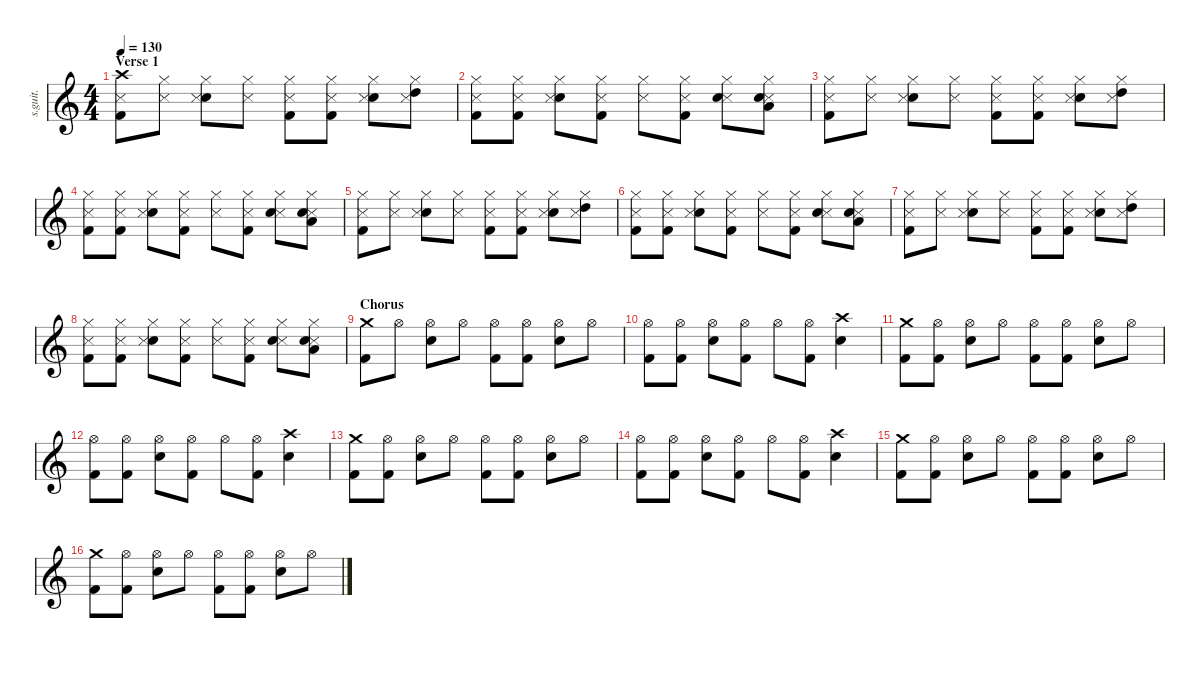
\defaultSystemsLayout 4
\hideDynamics
\bracketExtendMode nobrackets
\track ("Rowntree & Coxon - Drums" "s.guit.") {instrument percussion}
\staff {score}
\articulation defaults
\ts (4 4)
\section ("" "Verse 1")
\tempo 130
\clef g2
\ks c
("Kick (hit) 2" "Snare (side stick) 3" "Crash high (hit)").8{lyrics (0 "") lyrics (1 "") lyrics (2 "") lyrics (3 "") lyrics (4 "") dy f} ("Snare (side stick) 3" "Hi-Hat (closed)").8{lyrics (0 "") lyrics (1 "") lyrics (2 "") lyrics (3 "") lyrics (4 "")} ("Snare (hit) 2" "Snare (side stick) 3" "Hi-Hat (closed)").8{lyrics (0 "") lyrics (1 "") lyrics (2 "") lyrics (3 "") lyrics (4 "")} ("Snare (side stick) 3" "Hi-Hat (closed)").8{lyrics (0 "") lyrics (1 "") lyrics (2 "") lyrics (3 "") lyrics (4 "")} ("Kick (hit) 2" "Snare (side stick) 3" "Hi-Hat (closed)").8{lyrics (0 "") lyrics (1 "") lyrics (2 "") lyrics (3 "") lyrics (4 "")} ("Kick (hit) 2" "Snare (side stick) 3" "Hi-Hat (closed)").8{lyrics (0 "") lyrics (1 "") lyrics (2 "") lyrics (3 "") lyrics (4 "")} ("Snare (hit) 2" "Snare (side stick) 3" "Hi-Hat (closed)").8{lyrics (0 "") lyrics (1 "") lyrics (2 "") lyrics (3 "") lyrics (4 "")} ("High Tom (hit)" "Snare (side stick) 3" "Hi-Hat (closed)").8{lyrics (0 "") lyrics (1 "") lyrics (2 "") lyrics (3 "") lyrics (4 "")} |
("Kick (hit) 2" "Snare (side stick) 3" "Hi-Hat (closed)").8{lyrics (0 "") lyrics (1 "") lyrics (2 "") lyrics (3 "") lyrics (4 "")} ("Kick (hit) 2" "Snare (side stick) 3" "Hi-Hat (closed)").8{lyrics (0 "") lyrics (1 "") lyrics (2 "") lyrics (3 "") lyrics (4 "")} ("Snare (hit) 2" "Snare (side stick) 3" "Hi-Hat (closed)").8{lyrics (0 "") lyrics (1 "") lyrics (2 "") lyrics (3 "") lyrics (4 "")} ("Kick (hit) 2" "Snare (side stick) 3" "Hi-Hat (closed)").8{lyrics (0 "") lyrics (1 "") lyrics (2 "") lyrics (3 "") lyrics (4 "")} ("Snare (side stick) 3" "Hi-Hat (closed)").8{lyrics (0 "") lyrics (1 "") lyrics (2 "") lyrics (3 "") lyrics (4 "")} ("Kick (hit) 2" "Snare (side stick) 3" "Hi-Hat (closed)").8{lyrics (0 "") lyrics (1 "") lyrics (2 "") lyrics (3 "") lyrics (4 "")} ("Snare (side stick) 3" "Snare (hit) 2" "Hi-Hat (closed)").8{lyrics (0 "") lyrics (1 "") lyrics (2 "") lyrics (3 "") lyrics (4 "")} ("Snare (side stick) 3" "Snare (hit) 2" "Low Floor Tom (hit)" "Hi-Hat (closed)").8{lyrics (0 "") lyrics (1 "") lyrics (2 "") lyrics (3 "") lyrics (4 "")} |
("Kick (hit) 2" "Snare (side stick) 3" "Hi-Hat (closed)").8{lyrics (0 "") lyrics (1 "") lyrics (2 "") lyrics (3 "") lyrics (4 "")} ("Snare (side stick) 3" "Hi-Hat (closed)").8{lyrics (0 "") lyrics (1 "") lyrics (2 "") lyrics (3 "") lyrics (4 "")} ("Snare (hit) 2" "Snare (side stick) 3" "Hi-Hat (closed)").8{lyrics (0 "") lyrics (1 "") lyrics (2 "") lyrics (3 "") lyrics (4 "")} ("Snare (side stick) 3" "Hi-Hat (closed)").8{lyrics (0 "") lyrics (1 "") lyrics (2 "") lyrics (3 "") lyrics (4 "")} ("Kick (hit) 2" "Snare (side stick) 3" "Hi-Hat (closed)").8{lyrics (0 "") lyrics (1 "") lyrics (2 "") lyrics (3 "") lyrics (4 "")} ("Kick (hit) 2" "Snare (side stick) 3" "Hi-Hat (closed)").8{lyrics (0 "") lyrics (1 "") lyrics (2 "") lyrics (3 "") lyrics (4 "")} ("Snare (hit) 2" "Snare (side stick) 3" "Hi-Hat (closed)").8{lyrics (0 "") lyrics (1 "") lyrics (2 "") lyrics (3 "") lyrics (4 "")} ("High Tom (hit)" "Snare (side stick) 3" "Hi-Hat (closed)").8{lyrics (0 "") lyrics (1 "") lyrics (2 "") lyrics (3 "") lyrics (4 "")} |
("Kick (hit) 2" "Snare (side stick) 3" "Hi-Hat (closed)").8{lyrics (0 "") lyrics (1 "") lyrics (2 "") lyrics (3 "") lyrics (4 "")} ("Kick (hit) 2" "Snare (side stick) 3" "Hi-Hat (closed)").8{lyrics (0 "") lyrics (1 "") lyrics (2 "") lyrics (3 "") lyrics (4 "")} ("Snare (hit) 2" "Snare (side stick) 3" "Hi-Hat (closed)").8{lyrics (0 "") lyrics (1 "") lyrics (2 "") lyrics (3 "") lyrics (4 "")} ("Kick (hit) 2" "Snare (side stick) 3" "Hi-Hat (closed)").8{lyrics (0 "") lyrics (1 "") lyrics (2 "") lyrics (3 "") lyrics (4 "")} ("Snare (side stick) 3" "Hi-Hat (closed)").8{lyrics (0 "") lyrics (1 "") lyrics (2 "") lyrics (3 "") lyrics (4 "")} ("Kick (hit) 2" "Snare (side stick) 3" "Hi-Hat (closed)").8{lyrics (0 "") lyrics (1 "") lyrics (2 "") lyrics (3 "") lyrics (4 "")} ("Snare (side stick) 3" "Snare (hit) 2" "Hi-Hat (closed)").8{lyrics (0 "") lyrics (1 "") lyrics (2 "") lyrics (3 "") lyrics (4 "")} ("Snare (side stick) 3" "Snare (hit) 2" "Low Floor Tom (hit)" "Hi-Hat (closed)").8{lyrics (0 "") lyrics (1 "") lyrics (2 "") lyrics (3 "") lyrics (4 "")} |
("Kick (hit) 2" "Snare (side stick) 3" "Hi-Hat (closed)").8{lyrics (0 "") lyrics (1 "") lyrics (2 "") lyrics (3 "") lyrics (4 "")} ("Snare (side stick) 3" "Hi-Hat (closed)").8{lyrics (0 "") lyrics (1 "") lyrics (2 "") lyrics (3 "") lyrics (4 "")} ("Snare (hit) 2" "Snare (side stick) 3" "Hi-Hat (closed)").8{lyrics (0 "") lyrics (1 "") lyrics (2 "") lyrics (3 "") lyrics (4 "")} ("Snare (side stick) 3" "Hi-Hat (closed)").8{lyrics (0 "") lyrics (1 "") lyrics (2 "") lyrics (3 "") lyrics (4 "")} ("Kick (hit) 2" "Snare (side stick) 3" "Hi-Hat (closed)").8{lyrics (0 "") lyrics (1 "") lyrics (2 "") lyrics (3 "") lyrics (4 "")} ("Kick (hit) 2" "Snare (side stick) 3" "Hi-Hat (closed)").8{lyrics (0 "") lyrics (1 "") lyrics (2 "") lyrics (3 "") lyrics (4 "")} ("Snare (hit) 2" "Snare (side stick) 3" "Hi-Hat (closed)").8{lyrics (0 "") lyrics (1 "") lyrics (2 "") lyrics (3 "") lyrics (4 "")} ("Snare (side stick) 3" "Hi-Hat (closed)" "High Tom (hit)").8{lyrics (0 "") lyrics (1 "") lyrics (2 "") lyrics (3 "") lyrics (4 "")} |
("Kick (hit) 2" "Snare (side stick) 3" "Hi-Hat (closed)").8{lyrics (0 "") lyrics (1 "") lyrics (2 "") lyrics (3 "") lyrics (4 "")} ("Kick (hit) 2" "Snare (side stick) 3" "Hi-Hat (closed)").8{lyrics (0 "") lyrics (1 "") lyrics (2 "") lyrics (3 "") lyrics (4 "")} ("Snare (hit) 2" "Snare (side stick) 3" "Hi-Hat (closed)").8{lyrics (0 "") lyrics (1 "") lyrics (2 "") lyrics (3 "") lyrics (4 "")} ("Kick (hit) 2" "Snare (side stick) 3" "Hi-Hat (closed)").8{lyrics (0 "") lyrics (1 "") lyrics (2 "") lyrics (3 "") lyrics (4 "")} ("Snare (side stick) 3" "Hi-Hat (closed)").8{lyrics (0 "") lyrics (1 "") lyrics (2 "") lyrics (3 "") lyrics (4 "")} ("Kick (hit) 2" "Snare (side stick) 3" "Hi-Hat (closed)").8{lyrics (0 "") lyrics (1 "") lyrics (2 "") lyrics (3 "") lyrics (4 "")} ("Snare (side stick) 3" "Snare (hit) 2" "Hi-Hat (closed)").8{lyrics (0 "") lyrics (1 "") lyrics (2 "") lyrics (3 "") lyrics (4 "")} ("Snare (side stick) 3" "Snare (hit) 2" "Low Floor Tom (hit)" "Hi-Hat (closed)").8{lyrics (0 "") lyrics (1 "") lyrics (2 "") lyrics (3 "") lyrics (4 "")} |
("Kick (hit) 2" "Snare (side stick) 3" "Hi-Hat (closed)").8{lyrics (0 "") lyrics (1 "") lyrics (2 "") lyrics (3 "") lyrics (4 "")} ("Snare (side stick) 3" "Hi-Hat (closed)").8{lyrics (0 "") lyrics (1 "") lyrics (2 "") lyrics (3 "") lyrics (4 "")} ("Snare (hit) 2" "Snare (side stick) 3" "Hi-Hat (closed)").8{lyrics (0 "") lyrics (1 "") lyrics (2 "") lyrics (3 "") lyrics (4 "")} ("Snare (side stick) 3" "Hi-Hat (closed)").8{lyrics (0 "") lyrics (1 "") lyrics (2 "") lyrics (3 "") lyrics (4 "")} ("Kick (hit) 2" "Snare (side stick) 3" "Hi-Hat (closed)").8{lyrics (0 "") lyrics (1 "") lyrics (2 "") lyrics (3 "") lyrics (4 "")} ("Kick (hit) 2" "Snare (side stick) 3" "Hi-Hat (closed)").8{lyrics (0 "") lyrics (1 "") lyrics (2 "") lyrics (3 "") lyrics (4 "")} ("Snare (hit) 2" "Snare (side stick) 3" "Hi-Hat (closed)").8{lyrics (0 "") lyrics (1 "") lyrics (2 "") lyrics (3 "") lyrics (4 "")} ("High Tom (hit)" "Snare (side stick) 3" "Hi-Hat (closed)").8{lyrics (0 "") lyrics (1 "") lyrics (2 "") lyrics (3 "") lyrics (4 "")} |
("Kick (hit) 2" "Snare (side stick) 3" "Hi-Hat (closed)").8{lyrics (0 "") lyrics (1 "") lyrics (2 "") lyrics (3 "") lyrics (4 "")} ("Kick (hit) 2" "Snare (side stick) 3" "Hi-Hat (closed)").8{lyrics (0 "") lyrics (1 "") lyrics (2 "") lyrics (3 "") lyrics (4 "")} ("Snare (hit) 2" "Snare (side stick) 3" "Hi-Hat (closed)").8{lyrics (0 "") lyrics (1 "") lyrics (2 "") lyrics (3 "") lyrics (4 "")} ("Kick (hit) 2" "Snare (side stick) 3" "Hi-Hat (closed)").8{lyrics (0 "") lyrics (1 "") lyrics (2 "") lyrics (3 "") lyrics (4 "")} ("Snare (side stick) 3" "Hi-Hat (closed)").8{lyrics (0 "") lyrics (1 "") lyrics (2 "") lyrics (3 "") lyrics (4 "")} ("Kick (hit) 2" "Snare (side stick) 3" "Hi-Hat (closed)").8{lyrics (0 "") lyrics (1 "") lyrics (2 "") lyrics (3 "") lyrics (4 "")} ("Snare (side stick) 3" "Snare (hit) 2" "Hi-Hat (closed)").8{lyrics (0 "") lyrics (1 "") lyrics (2 "") lyrics (3 "") lyrics (4 "")} ("Snare (side stick) 3" "Snare (hit) 2" "Low Floor Tom (hit)" "Hi-Hat (closed)").8{lyrics (0 "") lyrics (1 "") lyrics (2 "") lyrics (3 "") lyrics (4 "")} |
\section ("" "Chorus")
("Crash medium (hit)" "Kick (hit) 2").8{lyrics (0 "") lyrics (1 "") lyrics (2 "") lyrics (3 "") lyrics (4 "")} "Hi-Hat (open)".8{lyrics (0 "") lyrics (1 "") lyrics (2 "") lyrics (3 "") lyrics (4 "")} ("Snare (hit) 2" "Hi-Hat (open)").8{lyrics (0 "") lyrics (1 "") lyrics (2 "") lyrics (3 "") lyrics (4 "")} "Hi-Hat (open)".8{lyrics (0 "") lyrics (1 "") lyrics (2 "") lyrics (3 "") lyrics (4 "")} ("Hi-Hat (open)" "Kick (hit) 2").8{lyrics (0 "") lyrics (1 "") lyrics (2 "") lyrics (3 "") lyrics (4 "")} ("Hi-Hat (open)" "Kick (hit) 2").8{lyrics (0 "") lyrics (1 "") lyrics (2 "") lyrics (3 "") lyrics (4 "")} ("Snare (hit) 2" "Hi-Hat (open)").8{lyrics (0 "") lyrics (1 "") lyrics (2 "") lyrics (3 "") lyrics (4 "")} "Hi-Hat (open)".8{lyrics (0 "") lyrics (1 "") lyrics (2 "") lyrics (3 "") lyrics (4 "")} |
("Hi-Hat (open)" "Kick (hit) 2").8{lyrics (0 "") lyrics (1 "") lyrics (2 "") lyrics (3 "") lyrics (4 "")} ("Hi-Hat (open)" "Kick (hit) 2").8{lyrics (0 "") lyrics (1 "") lyrics (2 "") lyrics (3 "") lyrics (4 "")} ("Snare (hit) 2" "Hi-Hat (open)").8{lyrics (0 "") lyrics (1 "") lyrics (2 "") lyrics (3 "") lyrics (4 "")} ("Hi-Hat (open)" "Kick (hit) 2").8{lyrics (0 "") lyrics (1 "") lyrics (2 "") lyrics (3 "") lyrics (4 "")} "Hi-Hat (open)".8{lyrics (0 "") lyrics (1 "") lyrics (2 "") lyrics (3 "") lyrics (4 "")} ("Hi-Hat (open)" "Kick (hit) 2").8{lyrics (0 "") lyrics (1 "") lyrics (2 "") lyrics (3 "") lyrics (4 "")} ("Snare (hit) 2" "Crash high (hit)").4{lyrics (0 "") lyrics (1 "") lyrics (2 "") lyrics (3 "") lyrics (4 "")} |
("Crash medium (hit)" "Kick (hit) 2").8{lyrics (0 "") lyrics (1 "") lyrics (2 "") lyrics (3 "") lyrics (4 "")} ("Hi-Hat (open)" "Kick (hit) 2").8{lyrics (0 "") lyrics (1 "") lyrics (2 "") lyrics (3 "") lyrics (4 "")} ("Snare (hit) 2" "Hi-Hat (open)").8{lyrics (0 "") lyrics (1 "") lyrics (2 "") lyrics (3 "") lyrics (4 "")} "Hi-Hat (open)".8{lyrics (0 "") lyrics (1 "") lyrics (2 "") lyrics (3 "") lyrics (4 "")} ("Hi-Hat (open)" "Kick (hit) 2").8{lyrics (0 "") lyrics (1 "") lyrics (2 "") lyrics (3 "") lyrics (4 "")} ("Hi-Hat (open)" "Kick (hit) 2").8{lyrics (0 "") lyrics (1 "") lyrics (2 "") lyrics (3 "") lyrics (4 "")} ("Snare (hit) 2" "Hi-Hat (open)").8{lyrics (0 "") lyrics (1 "") lyrics (2 "") lyrics (3 "") lyrics (4 "")} "Hi-Hat (open)".8{lyrics (0 "") lyrics (1 "") lyrics (2 "") lyrics (3 "") lyrics (4 "")} |
("Hi-Hat (open)" "Kick (hit) 2").8{lyrics (0 "") lyrics (1 "") lyrics (2 "") lyrics (3 "") lyrics (4 "")} ("Hi-Hat (open)" "Kick (hit) 2").8{lyrics (0 "") lyrics (1 "") lyrics (2 "") lyrics (3 "") lyrics (4 "")} ("Snare (hit) 2" "Hi-Hat (open)").8{lyrics (0 "") lyrics (1 "") lyrics (2 "") lyrics (3 "") lyrics (4 "")} ("Hi-Hat (open)" "Kick (hit) 2").8{lyrics (0 "") lyrics (1 "") lyrics (2 "") lyrics (3 "") lyrics (4 "")} "Hi-Hat (open)".8{lyrics (0 "") lyrics (1 "") lyrics (2 "") lyrics (3 "") lyrics (4 "")} ("Hi-Hat (open)" "Kick (hit) 2").8{lyrics (0 "") lyrics (1 "") lyrics (2 "") lyrics (3 "") lyrics (4 "")} ("Snare (hit) 2" "Crash high (hit)").4{lyrics (0 "") lyrics (1 "") lyrics (2 "") lyrics (3 "") lyrics (4 "")} |
("Crash medium (hit)" "Kick (hit) 2").8{lyrics (0 "") lyrics (1 "") lyrics (2 "") lyrics (3 "") lyrics (4 "")} ("Hi-Hat (open)" "Kick (hit) 2").8{lyrics (0 "") lyrics (1 "") lyrics (2 "") lyrics (3 "") lyrics (4 "")} ("Snare (hit) 2" "Hi-Hat (open)").8{lyrics (0 "") lyrics (1 "") lyrics (2 "") lyrics (3 "") lyrics (4 "")} "Hi-Hat (open)".8{lyrics (0 "") lyrics (1 "") lyrics (2 "") lyrics (3 "") lyrics (4 "")} ("Hi-Hat (open)" "Kick (hit) 2").8{lyrics (0 "") lyrics (1 "") lyrics (2 "") lyrics (3 "") lyrics (4 "")} ("Hi-Hat (open)" "Kick (hit) 2").8{lyrics (0 "") lyrics (1 "") lyrics (2 "") lyrics (3 "") lyrics (4 "")} ("Snare (hit) 2" "Hi-Hat (open)").8{lyrics (0 "") lyrics (1 "") lyrics (2 "") lyrics (3 "") lyrics (4 "")} "Hi-Hat (open)".8{lyrics (0 "") lyrics (1 "") lyrics (2 "") lyrics (3 "") lyrics (4 "")} |
("Hi-Hat (open)" "Kick (hit) 2").8{lyrics (0 "") lyrics (1 "") lyrics (2 "") lyrics (3 "") lyrics (4 "")} ("Hi-Hat (open)" "Kick (hit) 2").8{lyrics (0 "") lyrics (1 "") lyrics (2 "") lyrics (3 "") lyrics (4 "")} ("Snare (hit) 2" "Hi-Hat (open)").8{lyrics (0 "") lyrics (1 "") lyrics (2 "") lyrics (3 "") lyrics (4 "")} ("Hi-Hat (open)" "Kick (hit) 2").8{lyrics (0 "") lyrics (1 "") lyrics (2 "") lyrics (3 "") lyrics (4 "")} "Hi-Hat (open)".8{lyrics (0 "") lyrics (1 "") lyrics (2 "") lyrics (3 "") lyrics (4 "")} ("Hi-Hat (open)" "Kick (hit) 2").8{lyrics (0 "") lyrics (1 "") lyrics (2 "") lyrics (3 "") lyrics (4 "")} ("Snare (hit) 2" "Crash high (hit)").4{lyrics (0 "") lyrics (1 "") lyrics (2 "") lyrics (3 "") lyrics (4 "")} |
("Crash medium (hit)" "Kick (hit) 2").8{lyrics (0 "") lyrics (1 "") lyrics (2 "") lyrics (3 "") lyrics (4 "")} ("Hi-Hat (open)" "Kick (hit) 2").8{lyrics (0 "") lyrics (1 "") lyrics (2 "") lyrics (3 "") lyrics (4 "")} ("Snare (hit) 2" "Hi-Hat (open)").8{lyrics (0 "") lyrics (1 "") lyrics (2 "") lyrics (3 "") lyrics (4 "")} "Hi-Hat (open)".8{lyrics (0 "") lyrics (1 "") lyrics (2 "") lyrics (3 "") lyrics (4 "")} ("Hi-Hat (open)" "Kick (hit) 2").8{lyrics (0 "") lyrics (1 "") lyrics (2 "") lyrics (3 "") lyrics (4 "")} ("Hi-Hat (open)" "Kick (hit) 2").8{lyrics (0 "") lyrics (1 "") lyrics (2 "") lyrics (3 "") lyrics (4 "")} ("Snare (hit) 2" "Hi-Hat (open)").8{lyrics (0 "") lyrics (1 "") lyrics (2 "") lyrics (3 "") lyrics (4 "")} "Hi-Hat (open)".8{lyrics (0 "") lyrics (1 "") lyrics (2 "") lyrics (3 "") lyrics (4 "")} |
("Crash medium (hit)" "Kick (hit) 2").8{lyrics (0 "") lyrics (1 "") lyrics (2 "") lyrics (3 "") lyrics (4 "")} ("Hi-Hat (open)" "Kick (hit) 2").8{lyrics (0 "") lyrics (1 "") lyrics (2 "") lyrics (3 "") lyrics (4 "")} ("Snare (hit) 2" "Hi-Hat (open)").8{lyrics (0 "") lyrics (1 "") lyrics (2 "") lyrics (3 "") lyrics (4 "")} "Hi-Hat (open)".8{lyrics (0 "") lyrics (1 "") lyrics (2 "") lyrics (3 "") lyrics (4 "")} ("Hi-Hat (open)" "Kick (hit) 2").8{lyrics (0 "") lyrics (1 "") lyrics (2 "") lyrics (3 "") lyrics (4 "")} ("Hi-Hat (open)" "Kick (hit) 2").8{lyrics (0 "") lyrics (1 "") lyrics (2 "") lyrics (3 "") lyrics (4 "")} ("Snare (hit) 2" "Hi-Hat (open)").8{lyrics (0 "") lyrics (1 "") lyrics (2 "") lyrics (3 "") lyrics (4 "")} "Hi-Hat (open)".8{lyrics (0 "") lyrics (1 "") lyrics (2 "") lyrics (3 "") lyrics (4 "")}
